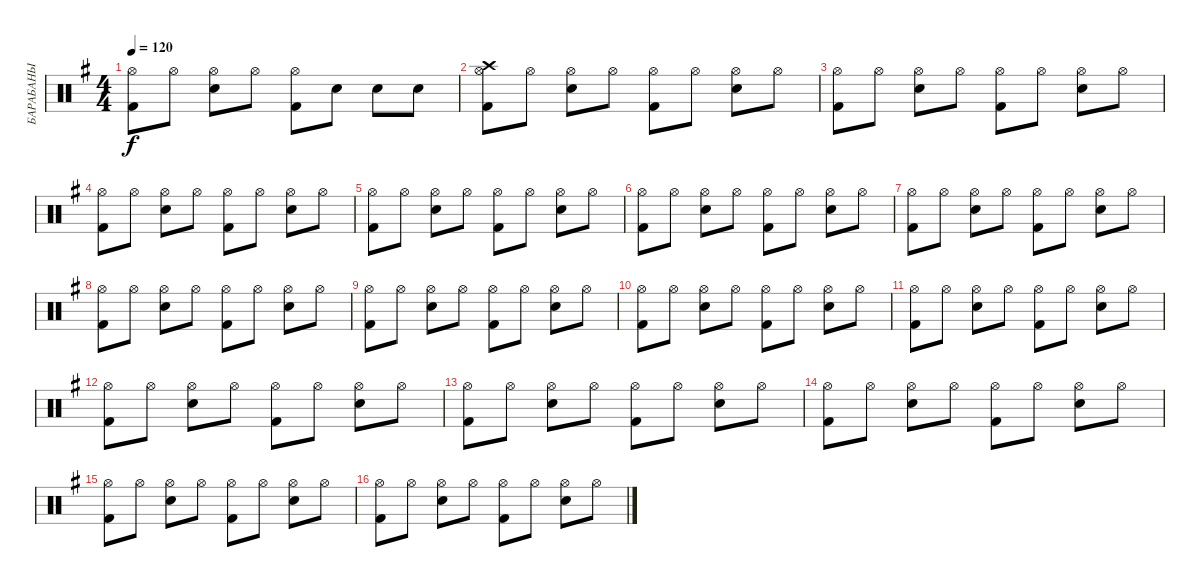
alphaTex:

\track ("БАРАБАНЫ" "БАРАБАНЫ") {instrument percussion}
\staff {score}
\articulation defaults
\ts (4 4)
\tempo 120
\clef neutral
\ks g
("Hi-Hat (open)" "Kick (hit) 2").8{dy f} "Hi-Hat (open)".8 ("Hi-Hat (open)" "Electric Snare (hit)").8 "Hi-Hat (open)".8 ("Hi-Hat (open)" "Kick (hit) 2").8 "Electric Snare (hit)".8 "Electric Snare (hit)".8 "Electric Snare (hit)".8 |
("Hi-Hat (open)" "Crash high (hit)" "Kick (hit) 2").8 "Hi-Hat (open)".8 ("Hi-Hat (open)" "Electric Snare (hit)").8 "Hi-Hat (open)".8 ("Hi-Hat (open)" "Kick (hit) 2").8 "Hi-Hat (open)".8 ("Hi-Hat (open)" "Electric Snare (hit)").8 "Hi-Hat (open)".8 |
("Hi-Hat (open)" "Kick (hit) 2").8 "Hi-Hat (open)".8 ("Hi-Hat (open)" "Electric Snare (hit)").8 "Hi-Hat (open)".8 ("Hi-Hat (open)" "Kick (hit) 2").8 "Hi-Hat (open)".8 ("Hi-Hat (open)" "Electric Snare (hit)").8 "Hi-Hat (open)".8 |
("Hi-Hat (open)" "Kick (hit) 2").8 "Hi-Hat (open)".8 ("Hi-Hat (open)" "Electric Snare (hit)").8 "Hi-Hat (open)".8 ("Hi-Hat (open)" "Kick (hit) 2").8 "Hi-Hat (open)".8 ("Hi-Hat (open)" "Electric Snare (hit)").8 "Hi-Hat (open)".8 |
("Hi-Hat (open)" "Kick (hit) 2").8 "Hi-Hat (open)".8 ("Hi-Hat (open)" "Electric Snare (hit)").8 "Hi-Hat (open)".8 ("Hi-Hat (open)" "Kick (hit) 2").8 "Hi-Hat (open)".8 ("Hi-Hat (open)" "Electric Snare (hit)").8 "Hi-Hat (open)".8 |
("Hi-Hat (open)" "Kick (hit) 2").8 "Hi-Hat (open)".8 ("Hi-Hat (open)" "Electric Snare (hit)").8 "Hi-Hat (open)".8 ("Hi-Hat (open)" "Kick (hit) 2").8 "Hi-Hat (open)".8 ("Hi-Hat (open)" "Electric Snare (hit)").8 "Hi-Hat (open)".8 |
("Hi-Hat (open)" "Kick (hit) 2").8 "Hi-Hat (open)".8 ("Hi-Hat (open)" "Electric Snare (hit)").8 "Hi-Hat (open)".8 ("Hi-Hat (open)" "Kick (hit) 2").8 "Hi-Hat (open)".8 ("Hi-Hat (open)" "Electric Snare (hit)").8 "Hi-Hat (open)".8 |
("Hi-Hat (open)" "Kick (hit) 2").8 "Hi-Hat (open)".8 ("Hi-Hat (open)" "Electric Snare (hit)").8 "Hi-Hat (open)".8 ("Hi-Hat (open)" "Kick (hit) 2").8 "Hi-Hat (open)".8 ("Hi-Hat (open)" "Electric Snare (hit)").8 "Hi-Hat (open)".8 |
("Hi-Hat (open)" "Kick (hit) 2").8 "Hi-Hat (open)".8 ("Hi-Hat (open)" "Electric Snare (hit)").8 "Hi-Hat (open)".8 ("Hi-Hat (open)" "Kick (hit) 2").8 "Hi-Hat (open)".8 ("Hi-Hat (open)" "Electric Snare (hit)").8 "Hi-Hat (open)".8 |
("Hi-Hat (open)" "Kick (hit) 2").8 "Hi-Hat (open)".8 ("Hi-Hat (open)" "Electric Snare (hit)").8 "Hi-Hat (open)".8 ("Hi-Hat (open)" "Kick (hit) 2").8 "Hi-Hat (open)".8 ("Hi-Hat (open)" "Electric Snare (hit)").8 "Hi-Hat (open)".8 |
("Hi-Hat (open)" "Kick (hit) 2").8 "Hi-Hat (open)".8 ("Hi-Hat (open)" "Electric Snare (hit)").8 "Hi-Hat (open)".8 ("Hi-Hat (open)" "Kick (hit) 2").8 "Hi-Hat (open)".8 ("Hi-Hat (open)" "Electric Snare (hit)").8 "Hi-Hat (open)".8 |
("Hi-Hat (open)" "Kick (hit) 2").8 "Hi-Hat (open)".8 ("Hi-Hat (open)" "Electric Snare (hit)").8 "Hi-Hat (open)".8 ("Hi-Hat (open)" "Kick (hit) 2").8 "Hi-Hat (open)".8 ("Hi-Hat (open)" "Electric Snare (hit)").8 "Hi-Hat (open)".8 |
("Hi-Hat (open)" "Kick (hit) 2").8 "Hi-Hat (open)".8 ("Hi-Hat (open)" "Electric Snare (hit)").8 "Hi-Hat (open)".8 ("Hi-Hat (open)" "Kick (hit) 2").8 "Hi-Hat (open)".8 ("Hi-Hat (open)" "Electric Snare (hit)").8 "Hi-Hat (open)".8 |
("Hi-Hat (open)" "Kick (hit) 2").8 "Hi-Hat (open)".8 ("Hi-Hat (open)" "Electric Snare (hit)").8 "Hi-Hat (open)".8 ("Hi-Hat (open)" "Kick (hit) 2").8 "Hi-Hat (open)".8 ("Hi-Hat (open)" "Electric Snare (hit)").8 "Hi-Hat (open)".8 |
("Hi-Hat (open)" "Kick (hit) 2").8 "Hi-Hat (open)".8 ("Hi-Hat (open)" "Electric Snare (hit)").8 "Hi-Hat (open)".8 ("Hi-Hat (open)" "Kick (hit) 2").8 "Hi-Hat (open)".8 ("Hi-Hat (open)" "Electric Snare (hit)").8 "Hi-Hat (open)".8 |
("Hi-Hat (open)" "Kick (hit) 2").8 "Hi-Hat (open)".8 ("Hi-Hat (open)" "Electric Snare (hit)").8 "Hi-Hat (open)".8 ("Hi-Hat (open)" "Kick (hit) 2").8 "Hi-Hat (open)".8 ("Hi-Hat (open)" "Electric Snare (hit)").8 "Hi-Hat (open)".8
